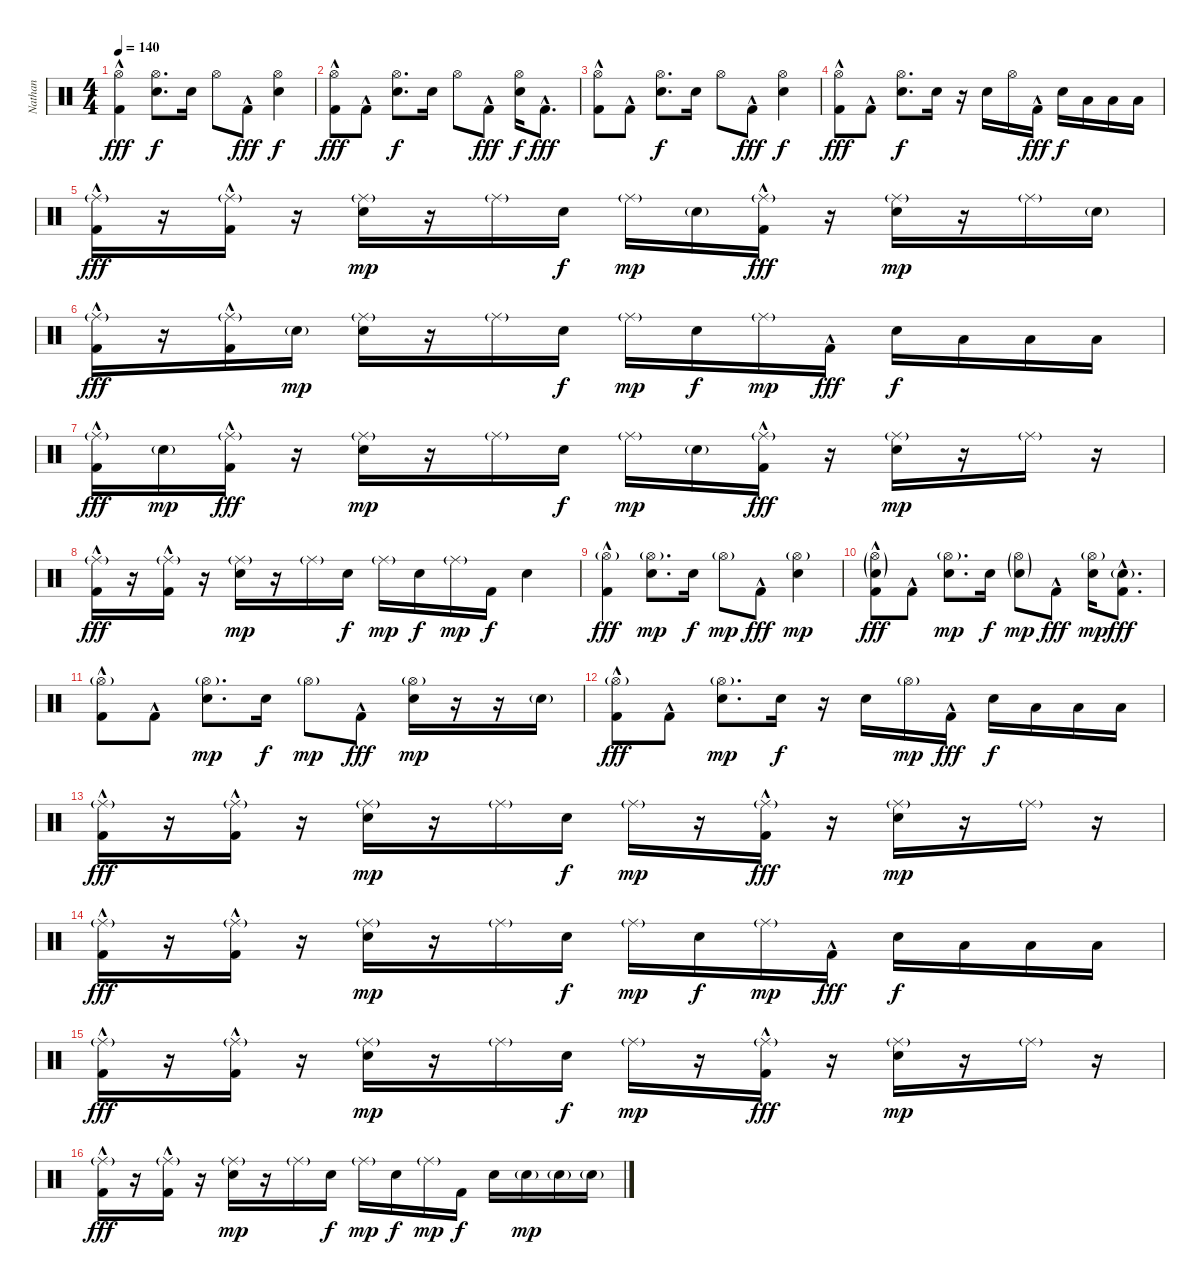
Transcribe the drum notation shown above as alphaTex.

\track ("Nathan" "Nathan") {instrument percussion}
\staff {score}
\articulation defaults
\ts (4 4)
\tempo 140
\clef neutral
\ks c
("Hi-Hat (open)" "Kick (hit) 2"{hac}).4{dy fff} ("Hi-Hat (open)" "Snare (hit) 2").8{d dy f} "Snare (hit) 2".16 "Hi-Hat (open)".8 "Kick (hit) 2"{hac}.8{dy fff} ("Hi-Hat (open)" "Snare (hit) 2").4{dy f} |
("Hi-Hat (open)" "Kick (hit) 2"{hac}).8{dy fff} "Kick (hit) 2"{hac}.8 ("Hi-Hat (open)" "Snare (hit) 2").8{d dy f} "Snare (hit) 2".16 "Hi-Hat (open)".8 "Kick (hit) 2"{hac}.8{dy fff} ("Hi-Hat (open)" "Snare (hit) 2").16{dy f} "Kick (hit) 2"{hac}.8{d dy fff} |
("Hi-Hat (open)" "Kick (hit) 2"{hac}).8 "Kick (hit) 2"{hac}.8 ("Hi-Hat (open)" "Snare (hit) 2").8{d dy f} "Snare (hit) 2".16 "Hi-Hat (open)".8 "Kick (hit) 2"{hac}.8{dy fff} ("Hi-Hat (open)" "Snare (hit) 2").4{dy f} |
("Hi-Hat (open)" "Kick (hit) 2"{hac}).8{dy fff} "Kick (hit) 2"{hac}.8 ("Hi-Hat (open)" "Snare (hit) 2").8{d dy f} "Snare (hit) 2".16 r.16 "Snare (hit) 2".16 "Hi-Hat (open)".16 "Kick (hit) 2"{hac}.16{dy fff} "Snare (hit) 2".16{dy f} "Low Tom (hit)".16 "Low Tom (hit)".16 "Low Tom (hit)".16 |
("Ride (middle)"{g} "Kick (hit) 2"{hac}).16{dy fff} r.16 ("Ride (middle)"{g} "Kick (hit) 2"{hac}).16 r.16 ("Ride (middle)"{g} "Snare (hit) 2").16{dy mp} r.16 "Ride (middle)"{g}.16 "Snare (hit) 2".16{dy f} "Ride (middle)"{g}.16{dy mp} "Snare (hit) 2"{g}.16 ("Ride (middle)"{g} "Kick (hit) 2"{hac}).16{dy fff} r.16 ("Ride (middle)"{g} "Snare (hit) 2").16{dy mp} r.16 "Ride (middle)"{g}.16 "Snare (hit) 2"{g}.16 |
("Ride (middle)"{g} "Kick (hit) 2"{hac}).16{dy fff} r.16 ("Ride (middle)"{g} "Kick (hit) 2"{hac}).16 "Snare (hit) 2"{g}.16{dy mp} ("Ride (middle)"{g} "Snare (hit) 2").16 r.16 "Ride (middle)"{g}.16 "Snare (hit) 2".16{dy f} "Ride (middle)"{g}.16{dy mp} "Snare (hit) 2".16{dy f} "Ride (middle)"{g}.16{dy mp} "Kick (hit) 2"{hac}.16{dy fff} "Snare (hit) 2".16{dy f} "Low Tom (hit)".16 "Low Tom (hit)".16 "Low Tom (hit)".16 |
("Ride (middle)"{g} "Kick (hit) 2"{hac}).16{dy fff} "Snare (hit) 2"{g}.16{dy mp} ("Ride (middle)"{g} "Kick (hit) 2"{hac}).16{dy fff} r.16 ("Ride (middle)"{g} "Snare (hit) 2").16{dy mp} r.16 "Ride (middle)"{g}.16 "Snare (hit) 2".16{dy f} "Ride (middle)"{g}.16{dy mp} "Snare (hit) 2"{g}.16 ("Ride (middle)"{g} "Kick (hit) 2"{hac}).16{dy fff} r.16 ("Ride (middle)"{g} "Snare (hit) 2").16{dy mp} r.16 "Ride (middle)"{g}.16 r.16 |
("Ride (middle)"{g} "Kick (hit) 2"{hac}).16{dy fff} r.16 ("Ride (middle)"{g} "Kick (hit) 2"{hac}).16 r.16 ("Ride (middle)"{g} "Snare (hit) 2").16{dy mp} r.16 "Ride (middle)"{g}.16 "Snare (hit) 2".16{dy f} "Ride (middle)"{g}.16{dy mp} "Snare (hit) 2".16{dy f} "Ride (middle)"{g}.16{dy mp} "Kick (hit) 2".16{dy f} "Snare (hit) 2".4 |
("Hi-Hat (open)"{g} "Kick (hit) 2"{hac}).4{dy fff} ("Hi-Hat (open)"{g} "Snare (hit) 2").8{d dy mp} "Snare (hit) 2".16{dy f} "Hi-Hat (open)"{g}.8{dy mp} "Kick (hit) 2"{hac}.8{dy fff} ("Hi-Hat (open)"{g} "Snare (hit) 2").4{dy mp} |
("Hi-Hat (open)"{g} "Snare (hit) 2"{g} "Kick (hit) 2"{hac}).8{dy fff} "Kick (hit) 2"{hac}.8 ("Hi-Hat (open)"{g} "Snare (hit) 2").8{d dy mp} "Snare (hit) 2".16{dy f} ("Hi-Hat (open)"{g} "Snare (hit) 2"{g}).8{dy mp} "Kick (hit) 2"{hac}.8{dy fff} ("Hi-Hat (open)"{g} "Snare (hit) 2").16{dy mp} ("Snare (hit) 2"{g} "Kick (hit) 2"{hac}).8{d dy fff} |
("Hi-Hat (open)"{g} "Kick (hit) 2"{hac}).8 "Kick (hit) 2"{hac}.8 ("Hi-Hat (open)"{g} "Snare (hit) 2").8{d dy mp} "Snare (hit) 2".16{dy f} "Hi-Hat (open)"{g}.8{dy mp} "Kick (hit) 2"{hac}.8{dy fff} ("Hi-Hat (open)"{g} "Snare (hit) 2").16{dy mp} r.16 r.16 "Snare (hit) 2"{g}.16 |
("Hi-Hat (open)"{g} "Kick (hit) 2"{hac}).8{dy fff} "Kick (hit) 2"{hac}.8 ("Hi-Hat (open)"{g} "Snare (hit) 2").8{d dy mp} "Snare (hit) 2".16{dy f} r.16 "Snare (hit) 2".16 "Hi-Hat (open)"{g}.16{dy mp} "Kick (hit) 2"{hac}.16{dy fff} "Snare (hit) 2".16{dy f} "Low Tom (hit)".16 "Low Tom (hit)".16 "Low Tom (hit)".16 |
("Ride (middle)"{g} "Kick (hit) 2"{hac}).16{dy fff} r.16 ("Ride (middle)"{g} "Kick (hit) 2"{hac}).16 r.16 ("Ride (middle)"{g} "Snare (hit) 2").16{dy mp} r.16 "Ride (middle)"{g}.16 "Snare (hit) 2".16{dy f} "Ride (middle)"{g}.16{dy mp} r.16 ("Ride (middle)"{g} "Kick (hit) 2"{hac}).16{dy fff} r.16 ("Ride (middle)"{g} "Snare (hit) 2").16{dy mp} r.16 "Ride (middle)"{g}.16 r.16 |
("Ride (middle)"{g} "Kick (hit) 2"{hac}).16{dy fff} r.16 ("Ride (middle)"{g} "Kick (hit) 2"{hac}).16 r.16 ("Ride (middle)"{g} "Snare (hit) 2").16{dy mp} r.16 "Ride (middle)"{g}.16 "Snare (hit) 2".16{dy f} "Ride (middle)"{g}.16{dy mp} "Snare (hit) 2".16{dy f} "Ride (middle)"{g}.16{dy mp} "Kick (hit) 2"{hac}.16{dy fff} "Snare (hit) 2".16{dy f} "Low Tom (hit)".16 "Low Tom (hit)".16 "Low Tom (hit)".16 |
("Ride (middle)"{g} "Kick (hit) 2"{hac}).16{dy fff} r.16 ("Ride (middle)"{g} "Kick (hit) 2"{hac}).16 r.16 ("Ride (middle)"{g} "Snare (hit) 2").16{dy mp} r.16 "Ride (middle)"{g}.16 "Snare (hit) 2".16{dy f} "Ride (middle)"{g}.16{dy mp} r.16 ("Ride (middle)"{g} "Kick (hit) 2"{hac}).16{dy fff} r.16 ("Ride (middle)"{g} "Snare (hit) 2").16{dy mp} r.16 "Ride (middle)"{g}.16 r.16 |
("Ride (middle)"{g} "Kick (hit) 2"{hac}).16{dy fff} r.16 ("Ride (middle)"{g} "Kick (hit) 2"{hac}).16 r.16 ("Ride (middle)"{g} "Snare (hit) 2").16{dy mp} r.16 "Ride (middle)"{g}.16 "Snare (hit) 2".16{dy f} "Ride (middle)"{g}.16{dy mp} "Snare (hit) 2".16{dy f} "Ride (middle)"{g}.16{dy mp} "Kick (hit) 2".16{dy f} "Snare (hit) 2".16 "Snare (hit) 2"{g}.16{dy mp} "Snare (hit) 2"{g}.16 "Snare (hit) 2"{g}.16
